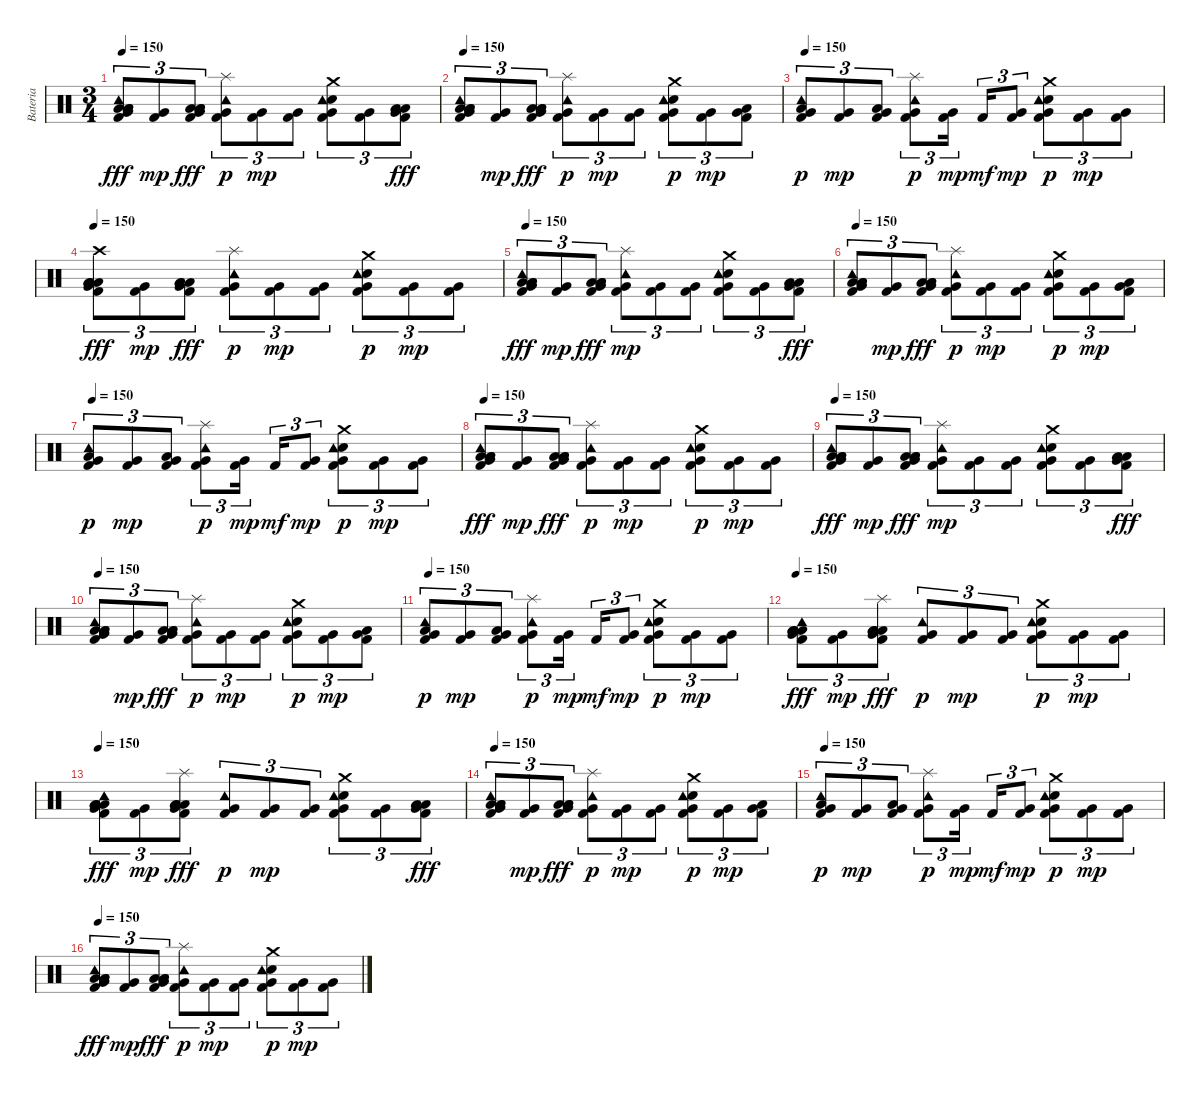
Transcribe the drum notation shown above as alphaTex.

\track ("Bateria" "Bateria") {instrument percussion}
\staff {score}
\articulation defaults
\ts (3 4)
\tempo 150
\clef neutral
\ks c
("Low Floor Tom (hit)" "Very Low Tom (hit)" "Kick (hit) 2" "Tambourine (hit)" "Low Floor Tom (hit)" "Low Tom (hit)").8{tu (3 2) dy fff} ("Very Low Tom (hit)" "Kick (hit) 2").8{tu (3 2) dy mp} ("Low Floor Tom (hit)" "Very Low Tom (hit)" "Kick (hit) 2" "Low Floor Tom (hit)" "Low Tom (hit)").8{tu (3 2) dy fff} ("Splash (hit)" "Very Low Tom (hit)" "Kick (hit) 2" "Tambourine (hit)").8{tu (3 2) dy p} ("Very Low Tom (hit)" "Kick (hit) 2").8{tu (3 2) dy mp} ("Very Low Tom (hit)" "Kick (hit) 2").8{tu (3 2)} ("Electric Snare (hit)" "Very Low Tom (hit)" "Kick (hit) 2" "Tambourine (hit)" "Crash medium (hit)").8{tu (3 2)} ("Very Low Tom (hit)" "Kick (hit) 2").8{tu (3 2)} ("Very Low Tom (hit)" "Kick (hit) 2" "Low Floor Tom (hit)" "Low Tom (hit)").8{tu (3 2) dy fff} |
\tempo 150
("Low Floor Tom (hit)" "Very Low Tom (hit)" "Kick (hit) 2" "Tambourine (hit)" "Low Floor Tom (hit)" "Low Tom (hit)").8{tu (3 2)} ("Very Low Tom (hit)" "Kick (hit) 2").8{tu (3 2) dy mp} ("Low Floor Tom (hit)" "Very Low Tom (hit)" "Kick (hit) 2" "Low Floor Tom (hit)" "Low Tom (hit)").8{tu (3 2) dy fff} ("Splash (hit)" "Very Low Tom (hit)" "Kick (hit) 2" "Tambourine (hit)").8{tu (3 2) dy p} ("Very Low Tom (hit)" "Kick (hit) 2").8{tu (3 2) dy mp} ("Very Low Tom (hit)" "Kick (hit) 2").8{tu (3 2)} ("Electric Snare (hit)" "Very Low Tom (hit)" "Kick (hit) 2" "Crash medium (hit)" "Tambourine (hit)").8{tu (3 2) dy p} ("Very Low Tom (hit)" "Kick (hit) 2").8{tu (3 2) dy mp} ("Low Floor Tom (hit)" "Very Low Tom (hit)" "Kick (hit) 2").8{tu (3 2)} |
\tempo 150
("Low Floor Tom (hit)" "Very Low Tom (hit)" "Kick (hit) 2" "Tambourine (hit)").8{tu (3 2) dy p} ("Very Low Tom (hit)" "Kick (hit) 2").8{tu (3 2) dy mp} ("Low Floor Tom (hit)" "Very Low Tom (hit)" "Kick (hit) 2").8{tu (3 2)} ("Very Low Tom (hit)" "Kick (hit) 2" "Splash (hit)" "Tambourine (hit)").8{tu (3 2) dy p} ("Very Low Tom (hit)" "Kick (hit) 2").16{tu (3 2) dy mp beam splitsecondary} "Kick (hit) 2".16{tu (3 2) dy mf} ("Very Low Tom (hit)" "Kick (hit) 2").8{tu (3 2) dy mp} ("Electric Snare (hit)" "Very Low Tom (hit)" "Kick (hit) 2" "Crash medium (hit)" "Tambourine (hit)").8{tu (3 2) dy p} ("Very Low Tom (hit)" "Kick (hit) 2").8{tu (3 2) dy mp} ("Very Low Tom (hit)" "Kick (hit) 2").8{tu (3 2)} |
\tempo 150
("Low Floor Tom (hit)" "Very Low Tom (hit)" "Kick (hit) 2" "Crash high (hit)" "Low Floor Tom (hit)" "Low Tom (hit)").8{tu (3 2) dy fff} ("Very Low Tom (hit)" "Kick (hit) 2").8{tu (3 2) dy mp} ("Low Floor Tom (hit)" "Very Low Tom (hit)" "Kick (hit) 2" "Low Floor Tom (hit)" "Low Tom (hit)").8{tu (3 2) dy fff} ("Very Low Tom (hit)" "Kick (hit) 2" "Splash (hit)" "Tambourine (hit)").8{tu (3 2) dy p} ("Very Low Tom (hit)" "Kick (hit) 2").8{tu (3 2) dy mp} ("Very Low Tom (hit)" "Kick (hit) 2").8{tu (3 2)} ("Electric Snare (hit)" "Very Low Tom (hit)" "Kick (hit) 2" "Crash medium (hit)" "Tambourine (hit)").8{tu (3 2) dy p} ("Very Low Tom (hit)" "Kick (hit) 2").8{tu (3 2) dy mp} ("Very Low Tom (hit)" "Kick (hit) 2").8{tu (3 2)} |
\tempo 150
("Low Floor Tom (hit)" "Very Low Tom (hit)" "Kick (hit) 2" "Tambourine (hit)" "Low Floor Tom (hit)" "Low Tom (hit)").8{tu (3 2) dy fff} ("Very Low Tom (hit)" "Kick (hit) 2").8{tu (3 2) dy mp} ("Low Floor Tom (hit)" "Very Low Tom (hit)" "Kick (hit) 2" "Low Floor Tom (hit)" "Low Tom (hit)").8{tu (3 2) dy fff} ("Very Low Tom (hit)" "Kick (hit) 2" "Tambourine (hit)" "Splash (hit)").8{tu (3 2) dy mp} ("Very Low Tom (hit)" "Kick (hit) 2").8{tu (3 2)} ("Very Low Tom (hit)" "Kick (hit) 2").8{tu (3 2)} ("Electric Snare (hit)" "Very Low Tom (hit)" "Kick (hit) 2" "Tambourine (hit)" "Crash medium (hit)").8{tu (3 2)} ("Very Low Tom (hit)" "Kick (hit) 2").8{tu (3 2)} ("Very Low Tom (hit)" "Kick (hit) 2" "Low Floor Tom (hit)" "Low Tom (hit)").8{tu (3 2) dy fff} |
\tempo 150
("Low Floor Tom (hit)" "Very Low Tom (hit)" "Kick (hit) 2" "Tambourine (hit)" "Low Floor Tom (hit)" "Low Tom (hit)").8{tu (3 2)} ("Very Low Tom (hit)" "Kick (hit) 2").8{tu (3 2) dy mp} ("Low Floor Tom (hit)" "Very Low Tom (hit)" "Kick (hit) 2" "Low Floor Tom (hit)" "Low Tom (hit)").8{tu (3 2) dy fff} ("Very Low Tom (hit)" "Kick (hit) 2" "Splash (hit)" "Tambourine (hit)").8{tu (3 2) dy p} ("Very Low Tom (hit)" "Kick (hit) 2").8{tu (3 2) dy mp} ("Very Low Tom (hit)" "Kick (hit) 2").8{tu (3 2)} ("Electric Snare (hit)" "Very Low Tom (hit)" "Kick (hit) 2" "Crash medium (hit)" "Tambourine (hit)").8{tu (3 2) dy p} ("Very Low Tom (hit)" "Kick (hit) 2").8{tu (3 2) dy mp} ("Low Floor Tom (hit)" "Very Low Tom (hit)" "Kick (hit) 2").8{tu (3 2)} |
\tempo 150
("Low Floor Tom (hit)" "Very Low Tom (hit)" "Kick (hit) 2" "Tambourine (hit)").8{tu (3 2) dy p} ("Very Low Tom (hit)" "Kick (hit) 2").8{tu (3 2) dy mp} ("Low Floor Tom (hit)" "Very Low Tom (hit)" "Kick (hit) 2").8{tu (3 2)} ("Very Low Tom (hit)" "Kick (hit) 2" "Splash (hit)" "Tambourine (hit)").8{tu (3 2) dy p} ("Very Low Tom (hit)" "Kick (hit) 2").16{tu (3 2) dy mp beam splitsecondary} "Kick (hit) 2".16{tu (3 2) dy mf} ("Very Low Tom (hit)" "Kick (hit) 2").8{tu (3 2) dy mp} ("Electric Snare (hit)" "Very Low Tom (hit)" "Kick (hit) 2" "Crash medium (hit)" "Tambourine (hit)").8{tu (3 2) dy p} ("Very Low Tom (hit)" "Kick (hit) 2").8{tu (3 2) dy mp} ("Very Low Tom (hit)" "Kick (hit) 2").8{tu (3 2)} |
\tempo 150
("Low Floor Tom (hit)" "Very Low Tom (hit)" "Kick (hit) 2" "Tambourine (hit)" "Low Floor Tom (hit)" "Low Tom (hit)").8{tu (3 2) dy fff} ("Very Low Tom (hit)" "Kick (hit) 2").8{tu (3 2) dy mp} ("Low Floor Tom (hit)" "Very Low Tom (hit)" "Kick (hit) 2" "Low Floor Tom (hit)" "Low Tom (hit)").8{tu (3 2) dy fff} ("Very Low Tom (hit)" "Kick (hit) 2" "Splash (hit)" "Tambourine (hit)").8{tu (3 2) dy p} ("Very Low Tom (hit)" "Kick (hit) 2").8{tu (3 2) dy mp} ("Very Low Tom (hit)" "Kick (hit) 2").8{tu (3 2)} ("Electric Snare (hit)" "Very Low Tom (hit)" "Kick (hit) 2" "Crash medium (hit)" "Tambourine (hit)").8{tu (3 2) dy p} ("Very Low Tom (hit)" "Kick (hit) 2").8{tu (3 2) dy mp} ("Very Low Tom (hit)" "Kick (hit) 2").8{tu (3 2)} |
\tempo 150
("Low Floor Tom (hit)" "Very Low Tom (hit)" "Kick (hit) 2" "Tambourine (hit)" "Low Floor Tom (hit)" "Low Tom (hit)").8{tu (3 2) dy fff} ("Very Low Tom (hit)" "Kick (hit) 2").8{tu (3 2) dy mp} ("Low Floor Tom (hit)" "Very Low Tom (hit)" "Kick (hit) 2" "Low Floor Tom (hit)" "Low Tom (hit)").8{tu (3 2) dy fff} ("Very Low Tom (hit)" "Kick (hit) 2" "Tambourine (hit)" "Splash (hit)").8{tu (3 2) dy mp} ("Very Low Tom (hit)" "Kick (hit) 2").8{tu (3 2)} ("Very Low Tom (hit)" "Kick (hit) 2").8{tu (3 2)} ("Electric Snare (hit)" "Very Low Tom (hit)" "Kick (hit) 2" "Tambourine (hit)" "Crash medium (hit)").8{tu (3 2)} ("Very Low Tom (hit)" "Kick (hit) 2").8{tu (3 2)} ("Very Low Tom (hit)" "Kick (hit) 2" "Low Floor Tom (hit)" "Low Tom (hit)").8{tu (3 2) dy fff} |
\tempo 150
("Low Floor Tom (hit)" "Very Low Tom (hit)" "Kick (hit) 2" "Tambourine (hit)" "Low Floor Tom (hit)" "Low Tom (hit)").8{tu (3 2)} ("Very Low Tom (hit)" "Kick (hit) 2").8{tu (3 2) dy mp} ("Low Floor Tom (hit)" "Very Low Tom (hit)" "Kick (hit) 2" "Low Floor Tom (hit)" "Low Tom (hit)").8{tu (3 2) dy fff} ("Very Low Tom (hit)" "Kick (hit) 2" "Splash (hit)" "Tambourine (hit)").8{tu (3 2) dy p} ("Very Low Tom (hit)" "Kick (hit) 2").8{tu (3 2) dy mp} ("Very Low Tom (hit)" "Kick (hit) 2").8{tu (3 2)} ("Electric Snare (hit)" "Very Low Tom (hit)" "Kick (hit) 2" "Crash medium (hit)" "Tambourine (hit)").8{tu (3 2) dy p} ("Very Low Tom (hit)" "Kick (hit) 2").8{tu (3 2) dy mp} ("Low Floor Tom (hit)" "Very Low Tom (hit)" "Kick (hit) 2").8{tu (3 2)} |
\tempo 150
("Low Floor Tom (hit)" "Very Low Tom (hit)" "Kick (hit) 2" "Tambourine (hit)").8{tu (3 2) dy p} ("Very Low Tom (hit)" "Kick (hit) 2").8{tu (3 2) dy mp} ("Low Floor Tom (hit)" "Very Low Tom (hit)" "Kick (hit) 2").8{tu (3 2)} ("Very Low Tom (hit)" "Kick (hit) 2" "Splash (hit)" "Tambourine (hit)").8{tu (3 2) dy p} ("Very Low Tom (hit)" "Kick (hit) 2").16{tu (3 2) dy mp beam splitsecondary} "Kick (hit) 2".16{tu (3 2) dy mf} ("Very Low Tom (hit)" "Kick (hit) 2").8{tu (3 2) dy mp} ("Electric Snare (hit)" "Very Low Tom (hit)" "Kick (hit) 2" "Crash medium (hit)" "Tambourine (hit)").8{tu (3 2) dy p} ("Very Low Tom (hit)" "Kick (hit) 2").8{tu (3 2) dy mp} ("Very Low Tom (hit)" "Kick (hit) 2").8{tu (3 2)} |
\tempo 150
("Low Floor Tom (hit)" "Very Low Tom (hit)" "Kick (hit) 2" "Tambourine (hit)" "Low Floor Tom (hit)" "Low Tom (hit)").8{tu (3 2) dy fff} ("Very Low Tom (hit)" "Kick (hit) 2").8{tu (3 2) dy mp} ("Low Floor Tom (hit)" "Very Low Tom (hit)" "Kick (hit) 2" "Splash (hit)" "Low Floor Tom (hit)" "Low Tom (hit)").8{tu (3 2) dy fff} ("Very Low Tom (hit)" "Kick (hit) 2" "Tambourine (hit)").8{tu (3 2) dy p} ("Very Low Tom (hit)" "Kick (hit) 2").8{tu (3 2) dy mp} ("Very Low Tom (hit)" "Kick (hit) 2").8{tu (3 2)} ("Electric Snare (hit)" "Very Low Tom (hit)" "Kick (hit) 2" "Crash medium (hit)" "Tambourine (hit)").8{tu (3 2) dy p} ("Very Low Tom (hit)" "Kick (hit) 2").8{tu (3 2) dy mp} ("Very Low Tom (hit)" "Kick (hit) 2").8{tu (3 2)} |
\tempo 150
("Low Floor Tom (hit)" "Very Low Tom (hit)" "Kick (hit) 2" "Tambourine (hit)" "Low Floor Tom (hit)" "Low Tom (hit)").8{tu (3 2) dy fff} ("Very Low Tom (hit)" "Kick (hit) 2").8{tu (3 2) dy mp} ("Low Floor Tom (hit)" "Very Low Tom (hit)" "Kick (hit) 2" "Splash (hit)" "Low Floor Tom (hit)" "Low Tom (hit)").8{tu (3 2) dy fff} ("Very Low Tom (hit)" "Kick (hit) 2" "Tambourine (hit)").8{tu (3 2) dy p} ("Very Low Tom (hit)" "Kick (hit) 2").8{tu (3 2) dy mp} ("Very Low Tom (hit)" "Kick (hit) 2").8{tu (3 2)} ("Electric Snare (hit)" "Very Low Tom (hit)" "Kick (hit) 2" "Tambourine (hit)" "Crash medium (hit)").8{tu (3 2)} ("Very Low Tom (hit)" "Kick (hit) 2").8{tu (3 2)} ("Very Low Tom (hit)" "Kick (hit) 2" "Low Floor Tom (hit)" "Low Tom (hit)").8{tu (3 2) dy fff} |
\tempo 150
("Low Floor Tom (hit)" "Very Low Tom (hit)" "Kick (hit) 2" "Tambourine (hit)" "Low Floor Tom (hit)" "Low Tom (hit)").8{tu (3 2)} ("Very Low Tom (hit)" "Kick (hit) 2").8{tu (3 2) dy mp} ("Low Floor Tom (hit)" "Very Low Tom (hit)" "Kick (hit) 2" "Low Floor Tom (hit)" "Low Tom (hit)").8{tu (3 2) dy fff} ("Very Low Tom (hit)" "Kick (hit) 2" "Splash (hit)" "Tambourine (hit)").8{tu (3 2) dy p} ("Very Low Tom (hit)" "Kick (hit) 2").8{tu (3 2) dy mp} ("Very Low Tom (hit)" "Kick (hit) 2").8{tu (3 2)} ("Electric Snare (hit)" "Very Low Tom (hit)" "Kick (hit) 2" "Crash medium (hit)" "Tambourine (hit)").8{tu (3 2) dy p} ("Very Low Tom (hit)" "Kick (hit) 2").8{tu (3 2) dy mp} ("Low Floor Tom (hit)" "Very Low Tom (hit)" "Kick (hit) 2").8{tu (3 2)} |
\tempo 150
("Low Floor Tom (hit)" "Very Low Tom (hit)" "Kick (hit) 2" "Tambourine (hit)").8{tu (3 2) dy p} ("Very Low Tom (hit)" "Kick (hit) 2").8{tu (3 2) dy mp} ("Low Floor Tom (hit)" "Very Low Tom (hit)" "Kick (hit) 2").8{tu (3 2)} ("Very Low Tom (hit)" "Kick (hit) 2" "Splash (hit)" "Tambourine (hit)").8{tu (3 2) dy p} ("Very Low Tom (hit)" "Kick (hit) 2").16{tu (3 2) dy mp beam splitsecondary} "Kick (hit) 2".16{tu (3 2) dy mf} ("Very Low Tom (hit)" "Kick (hit) 2").8{tu (3 2) dy mp} ("Electric Snare (hit)" "Very Low Tom (hit)" "Kick (hit) 2" "Crash medium (hit)" "Tambourine (hit)").8{tu (3 2) dy p} ("Very Low Tom (hit)" "Kick (hit) 2").8{tu (3 2) dy mp} ("Very Low Tom (hit)" "Kick (hit) 2").8{tu (3 2)} |
\tempo 150
("Low Floor Tom (hit)" "Very Low Tom (hit)" "Kick (hit) 2" "Tambourine (hit)" "Low Floor Tom (hit)" "Low Tom (hit)").8{tu (3 2) dy fff} ("Very Low Tom (hit)" "Kick (hit) 2").8{tu (3 2) dy mp} ("Low Floor Tom (hit)" "Very Low Tom (hit)" "Kick (hit) 2" "Low Floor Tom (hit)" "Low Tom (hit)").8{tu (3 2) dy fff} ("Very Low Tom (hit)" "Kick (hit) 2" "Splash (hit)" "Tambourine (hit)").8{tu (3 2) dy p} ("Very Low Tom (hit)" "Kick (hit) 2").8{tu (3 2) dy mp} ("Very Low Tom (hit)" "Kick (hit) 2").8{tu (3 2)} ("Electric Snare (hit)" "Very Low Tom (hit)" "Kick (hit) 2" "Crash medium (hit)" "Tambourine (hit)").8{tu (3 2) dy p} ("Very Low Tom (hit)" "Kick (hit) 2").8{tu (3 2) dy mp} ("Very Low Tom (hit)" "Kick (hit) 2").8{tu (3 2)}
